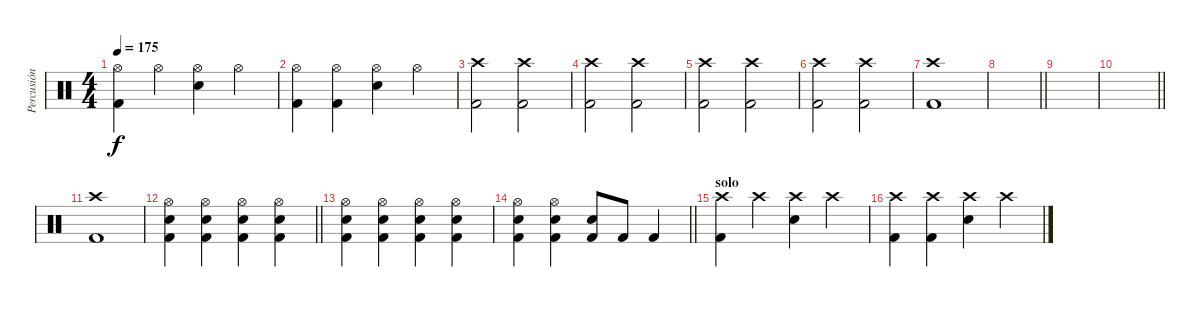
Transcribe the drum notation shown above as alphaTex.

\track ("Percusión" "Percusión") {instrument percussion}
\staff {score}
\articulation defaults
\ts (4 4)
\tempo 175
\clef neutral
\ks c
("Hi-Hat (open)" "Kick (hit) 2").4{dy f} "Hi-Hat (open)".4 ("Hi-Hat (open)" "Snare (hit) 2").4 "Hi-Hat (open)".4 |
("Hi-Hat (open)" "Kick (hit) 2").4 ("Hi-Hat (open)" "Kick (hit) 2").4 ("Hi-Hat (open)" "Snare (hit) 2").4 "Hi-Hat (open)".4 |
("Crash high (hit)" "Kick (hit) 2").2 ("Crash high (hit)" "Kick (hit) 2").2 |
("Crash high (hit)" "Kick (hit) 2").2 ("Crash high (hit)" "Kick (hit) 2").2 |
("Crash high (hit)" "Kick (hit) 2").2 ("Crash high (hit)" "Kick (hit) 2").2 |
("Crash high (hit)" "Kick (hit) 2").2 ("Crash high (hit)" "Kick (hit) 2").2 |
("Crash high (hit)" "Kick (hit) 2").1 |
\barLineRight lightlight
|
|
\barLineRight lightlight
|
("Crash high (hit)" "Kick (hit) 2").1 |
\barLineRight lightlight
("Hi-Hat (open)" "Snare (hit) 2" "Kick (hit) 2").4{volume 4} ("Hi-Hat (open)" "Snare (hit) 2" "Kick (hit) 2").4{volume 13} ("Hi-Hat (open)" "Snare (hit) 2" "Kick (hit) 2").4 ("Hi-Hat (open)" "Snare (hit) 2" "Kick (hit) 2").4 |
("Hi-Hat (open)" "Snare (hit) 2" "Kick (hit) 2").4 ("Hi-Hat (open)" "Snare (hit) 2" "Kick (hit) 2").4 ("Hi-Hat (open)" "Snare (hit) 2" "Kick (hit) 2").4 ("Hi-Hat (open)" "Snare (hit) 2" "Kick (hit) 2").4 |
\barLineRight lightlight
("Hi-Hat (open)" "Snare (hit) 2" "Kick (hit) 2").4 ("Hi-Hat (open)" "Snare (hit) 2" "Kick (hit) 2").4 ("Snare (hit) 2" "Kick (hit) 2").8 "Kick (hit) 2".8 "Kick (hit) 2".4 |
\section ("" "solo")
("Crash high (hit)" "Kick (hit) 2").4 "Crash high (hit)".4 ("Crash high (hit)" "Snare (hit) 2").4 "Crash high (hit)".4 |
("Crash high (hit)" "Kick (hit) 2").4 ("Crash high (hit)" "Kick (hit) 2").4 ("Crash high (hit)" "Snare (hit) 2").4 "Crash high (hit)".4
